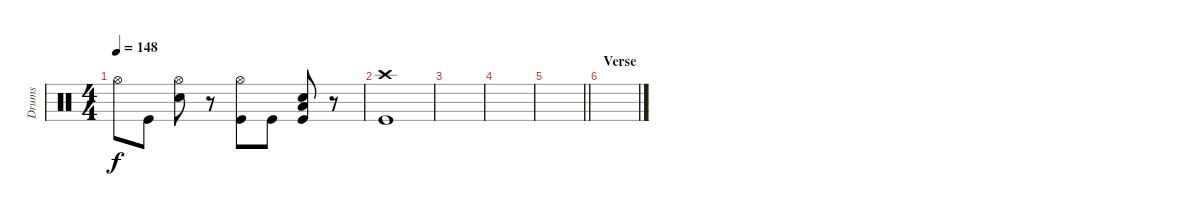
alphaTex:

\track ("Drums" "Drums") {instrument percussion}
\staff {score}
\articulation defaults
\ts (4 4)
\tempo 148
\clef neutral
\ks c "Hi-Hat (open)".8{dy f} "Kick (hit)".8
("Snare (hit) 2" "Hi-Hat (open)").8 r.8 ("Kick (hit)" "Hi-Hat (open)").8 "Kick (hit)".8 ("Snare (hit) 2" "Low Floor Tom (hit)" "Kick (hit)").8 r.8 |
("Kick (hit)" "Crash high (hit)").1 |
|
|
\barLineRight lightlight
|
\section ("" "Verse")
